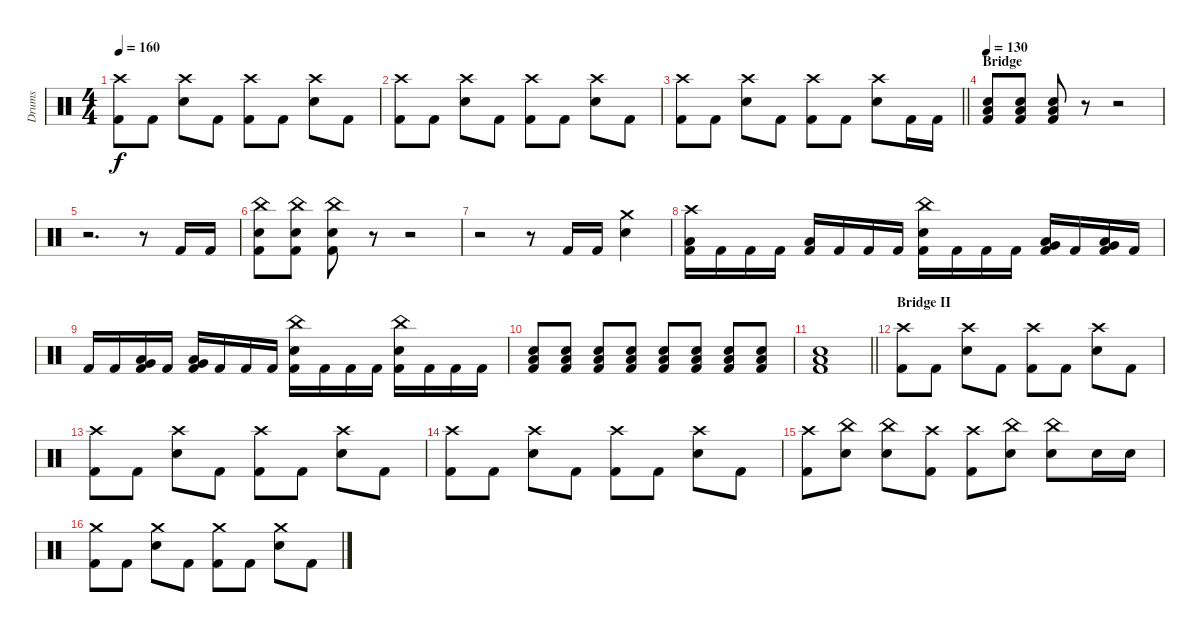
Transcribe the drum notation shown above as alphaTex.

\track ("Drums" "Drums") {instrument percussion}
\staff {score}
\articulation defaults
\ts (4 4)
\tempo 160
\clef neutral
\ks c
("Crash high (hit)" "Kick (hit) 2").8{dy f} "Kick (hit) 2".8 ("Crash high (hit)" "Electric Snare (hit)").8 "Kick (hit) 2".8 ("Crash high (hit)" "Kick (hit) 2").8 "Kick (hit) 2".8 ("Crash high (hit)" "Electric Snare (hit)").8 "Kick (hit) 2".8 |
("Crash high (hit)" "Kick (hit) 2").8 "Kick (hit) 2".8 ("Crash high (hit)" "Electric Snare (hit)").8 "Kick (hit) 2".8 ("Crash high (hit)" "Kick (hit) 2").8 "Kick (hit) 2".8 ("Crash high (hit)" "Electric Snare (hit)").8 "Kick (hit) 2".8 |
\barLineRight lightlight
("Crash high (hit)" "Kick (hit) 2").8 "Kick (hit) 2".8 ("Crash high (hit)" "Electric Snare (hit)").8 "Kick (hit) 2".8 ("Crash high (hit)" "Kick (hit) 2").8 "Kick (hit) 2".8 ("Crash high (hit)" "Electric Snare (hit)").8 "Kick (hit) 2".16 "Kick (hit) 2".16 |
\section ("" "Bridge")
\tempo 130
("Low Floor Tom (hit)" "Electric Snare (hit)" "Kick (hit) 2").8 ("Low Floor Tom (hit)" "Electric Snare (hit)" "Kick (hit) 2").8 ("Low Floor Tom (hit)" "Electric Snare (hit)" "Kick (hit) 2").8 r.8 r.2 |
r.2{d} r.8 "Kick (hit) 2".16 "Kick (hit) 2".16 |
("China (hit)" "Electric Snare (hit)" "Kick (hit) 2").8 ("China (hit)" "Electric Snare (hit)" "Kick (hit) 2").8 ("China (hit)" "Electric Snare (hit)" "Kick (hit) 2").8 r.8 r.2 |
r.2 r.8 "Kick (hit) 2".16 "Kick (hit) 2".16 ("Crash medium (hit)" "Electric Snare (hit)").4 |
("Crash high (hit)" "Low Floor Tom (hit)" "Kick (hit) 2").16 "Kick (hit) 2".16 "Kick (hit) 2".16 "Kick (hit) 2".16 ("Low Floor Tom (hit)" "Kick (hit) 2").16 "Kick (hit) 2".16 "Kick (hit) 2".16 "Kick (hit) 2".16 ("China (hit)" "Electric Snare (hit)" "Kick (hit) 2").16 "Kick (hit) 2".16 "Kick (hit) 2".16 "Kick (hit) 2".16 ("Low Floor Tom (hit)" "Very Low Tom (hit)" "Kick (hit) 2").16 "Kick (hit) 2".16 ("Low Floor Tom (hit)" "Very Low Tom (hit)" "Kick (hit) 2").16 "Kick (hit) 2".16 |
"Kick (hit) 2".16 "Kick (hit) 2".16 ("Low Floor Tom (hit)" "Very Low Tom (hit)" "Kick (hit) 2").16 "Kick (hit) 2".16 ("Low Floor Tom (hit)" "Very Low Tom (hit)" "Kick (hit) 2").16 "Kick (hit) 2".16 "Kick (hit) 2".16 "Kick (hit) 2".16 ("China (hit)" "Electric Snare (hit)" "Kick (hit) 2").16 "Kick (hit) 2".16 "Kick (hit) 2".16 "Kick (hit) 2".16 ("China (hit)" "Electric Snare (hit)" "Kick (hit) 2").16 "Kick (hit) 2".16 "Kick (hit) 2".16 "Kick (hit) 2".16 |
("Low Floor Tom (hit)" "Electric Snare (hit)" "Kick (hit) 2").8 ("Low Floor Tom (hit)" "Electric Snare (hit)" "Kick (hit) 2").8 ("Low Floor Tom (hit)" "Electric Snare (hit)" "Kick (hit) 2").8 ("Low Floor Tom (hit)" "Electric Snare (hit)" "Kick (hit) 2").8 ("Low Floor Tom (hit)" "Electric Snare (hit)" "Kick (hit) 2").8 ("Low Floor Tom (hit)" "Electric Snare (hit)" "Kick (hit) 2").8 ("Low Floor Tom (hit)" "Electric Snare (hit)" "Kick (hit) 2").8 ("Low Floor Tom (hit)" "Electric Snare (hit)" "Kick (hit) 2").8 |
\barLineRight lightlight
("Low Floor Tom (hit)" "Electric Snare (hit)" "Kick (hit) 2").1 |
\section ("" "Bridge II")
("Crash high (hit)" "Kick (hit) 2").8 "Kick (hit) 2".8 ("Crash high (hit)" "Electric Snare (hit)").8 "Kick (hit) 2".8 ("Crash high (hit)" "Kick (hit) 2").8 "Kick (hit) 2".8 ("Crash high (hit)" "Electric Snare (hit)").8 "Kick (hit) 2".8 |
("Crash high (hit)" "Kick (hit) 2").8 "Kick (hit) 2".8 ("Crash high (hit)" "Electric Snare (hit)").8 "Kick (hit) 2".8 ("Crash high (hit)" "Kick (hit) 2").8 "Kick (hit) 2".8 ("Crash high (hit)" "Electric Snare (hit)").8 "Kick (hit) 2".8 |
("Crash high (hit)" "Kick (hit) 2").8 "Kick (hit) 2".8 ("Crash high (hit)" "Electric Snare (hit)").8 "Kick (hit) 2".8 ("Crash high (hit)" "Kick (hit) 2").8 "Kick (hit) 2".8 ("Crash high (hit)" "Electric Snare (hit)").8 "Kick (hit) 2".8 |
("Crash high (hit)" "Kick (hit) 2").8 ("China (hit)" "Electric Snare (hit)").8 ("China (hit)" "Electric Snare (hit)").8 ("Crash high (hit)" "Kick (hit) 2").8 ("Crash high (hit)" "Kick (hit) 2").8 ("China (hit)" "Electric Snare (hit)").8 ("China (hit)" "Electric Snare (hit)").8 "Electric Snare (hit)".16 "Electric Snare (hit)".16 |
("Crash medium (hit)" "Kick (hit) 2").8 "Kick (hit) 2".8 ("Crash medium (hit)" "Electric Snare (hit)").8 "Kick (hit) 2".8 ("Crash medium (hit)" "Kick (hit) 2").8 "Kick (hit) 2".8 ("Crash medium (hit)" "Electric Snare (hit)").8 "Kick (hit) 2".8
